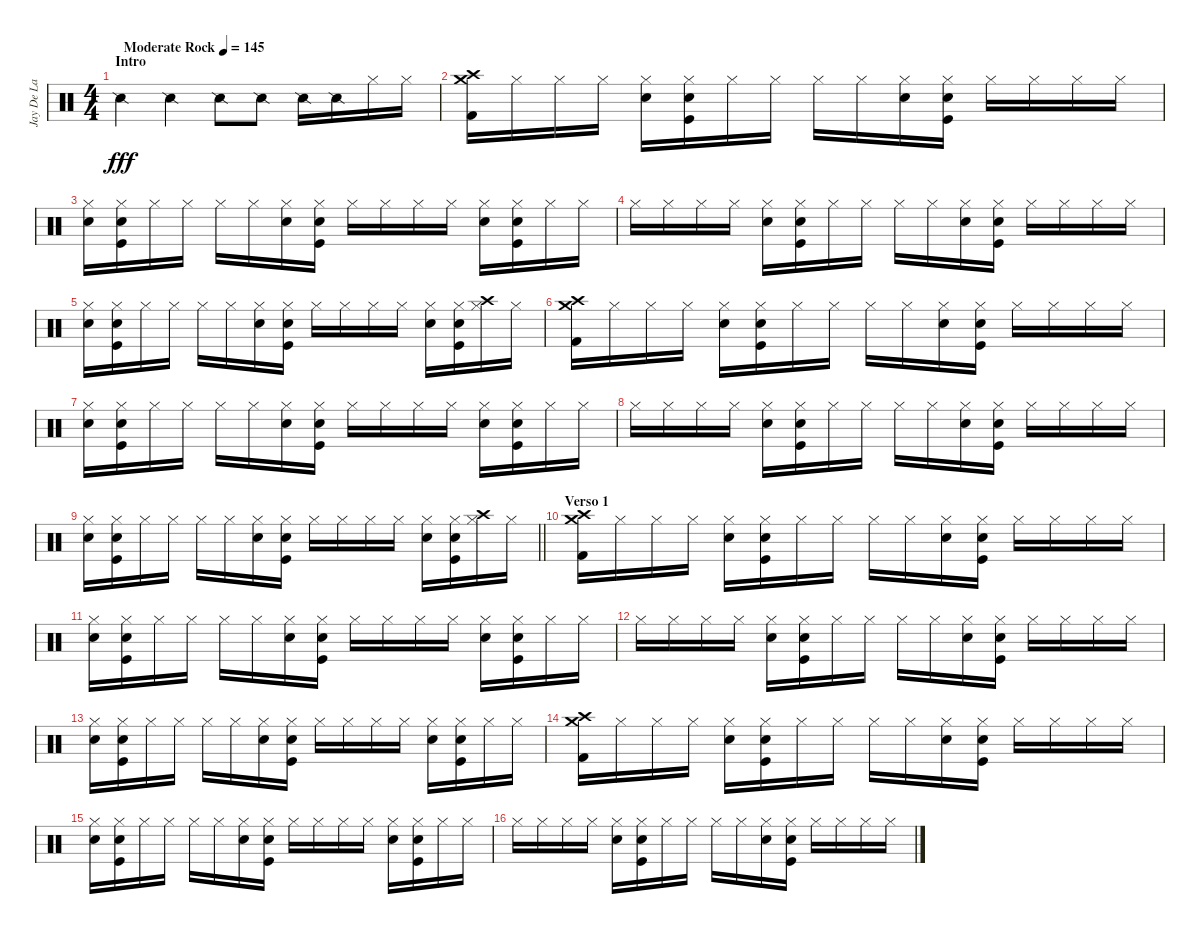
\track ("Jay De La Cueva o C. G." "Jay De La ") {instrument percussion}
\staff {score}
\articulation defaults
\ts (4 4)
\section ("" "Intro")
\tempo (145 "Moderate Rock")
\clef neutral
\ks c "Snare (side stick) 2".4{dy fff} "Snare (side stick) 2".4 "Snare (side stick) 2".8 "Snare (side stick) 2".8 "Snare (side stick) 2".16 "Snare (side stick) 2".16 "Hi-Hat (closed)".16 "Hi-Hat (closed)".16
|
("Crash high (hit)" "Crash medium (hit)" "Kick (hit) 2").16 "Hi-Hat (closed)".16 "Hi-Hat (closed)".16 "Hi-Hat (closed)".16 ("Snare (hit) 2" "Hi-Hat (closed)").16 ("Kick (hit)" "Snare (hit) 2" "Hi-Hat (closed)").16 "Hi-Hat (closed)".16 "Hi-Hat (closed)".16 "Hi-Hat (closed)".16 "Hi-Hat (closed)".16 ("Snare (hit) 2" "Hi-Hat (closed)").16 ("Kick (hit)" "Snare (hit) 2" "Hi-Hat (closed)").16 "Hi-Hat (closed)".16 "Hi-Hat (closed)".16 "Hi-Hat (closed)".16 "Hi-Hat (closed)".16 |
("Snare (hit) 2" "Hi-Hat (closed)").16 ("Kick (hit)" "Snare (hit) 2" "Hi-Hat (closed)").16 "Hi-Hat (closed)".16 "Hi-Hat (closed)".16 "Hi-Hat (closed)".16 "Hi-Hat (closed)".16 ("Snare (hit) 2" "Hi-Hat (closed)").16 ("Kick (hit)" "Snare (hit) 2" "Hi-Hat (closed)").16 "Hi-Hat (closed)".16 "Hi-Hat (closed)".16 "Hi-Hat (closed)".16 "Hi-Hat (closed)".16 ("Snare (hit) 2" "Hi-Hat (closed)").16 ("Kick (hit)" "Snare (hit) 2" "Hi-Hat (closed)").16 "Hi-Hat (closed)".16 "Hi-Hat (closed)".16 |
"Hi-Hat (closed)".16 "Hi-Hat (closed)".16 "Hi-Hat (closed)".16 "Hi-Hat (closed)".16 ("Snare (hit) 2" "Hi-Hat (closed)").16 ("Kick (hit)" "Snare (hit) 2" "Hi-Hat (closed)").16 "Hi-Hat (closed)".16 "Hi-Hat (closed)".16 "Hi-Hat (closed)".16 "Hi-Hat (closed)".16 ("Snare (hit) 2" "Hi-Hat (closed)").16 ("Kick (hit)" "Snare (hit) 2" "Hi-Hat (closed)").16 "Hi-Hat (closed)".16 "Hi-Hat (closed)".16 "Hi-Hat (closed)".16 "Hi-Hat (closed)".16 |
("Snare (hit) 2" "Hi-Hat (closed)").16 ("Kick (hit)" "Snare (hit) 2" "Hi-Hat (closed)").16 "Hi-Hat (closed)".16 "Hi-Hat (closed)".16 "Hi-Hat (closed)".16 "Hi-Hat (closed)".16 ("Snare (hit) 2" "Hi-Hat (closed)").16 ("Kick (hit)" "Snare (hit) 2" "Hi-Hat (closed)").16 "Hi-Hat (closed)".16 "Hi-Hat (closed)".16 "Hi-Hat (closed)".16 "Hi-Hat (closed)".16 ("Snare (hit) 2" "Hi-Hat (closed)").16 ("Kick (hit)" "Snare (hit) 2" "Hi-Hat (closed)").16 ("Crash high (hit)" "Hi-Hat (closed)").16 "Hi-Hat (closed)".16 |
("Crash high (hit)" "Crash medium (hit)" "Kick (hit) 2").16 "Hi-Hat (closed)".16 "Hi-Hat (closed)".16 "Hi-Hat (closed)".16 ("Snare (hit) 2" "Hi-Hat (closed)").16 ("Kick (hit)" "Snare (hit) 2" "Hi-Hat (closed)").16 "Hi-Hat (closed)".16 "Hi-Hat (closed)".16 "Hi-Hat (closed)".16 "Hi-Hat (closed)".16 ("Snare (hit) 2" "Hi-Hat (closed)").16 ("Kick (hit)" "Snare (hit) 2" "Hi-Hat (closed)").16 "Hi-Hat (closed)".16 "Hi-Hat (closed)".16 "Hi-Hat (closed)".16 "Hi-Hat (closed)".16 |
("Snare (hit) 2" "Hi-Hat (closed)").16 ("Kick (hit)" "Snare (hit) 2" "Hi-Hat (closed)").16 "Hi-Hat (closed)".16 "Hi-Hat (closed)".16 "Hi-Hat (closed)".16 "Hi-Hat (closed)".16 ("Snare (hit) 2" "Hi-Hat (closed)").16 ("Kick (hit)" "Snare (hit) 2" "Hi-Hat (closed)").16 "Hi-Hat (closed)".16 "Hi-Hat (closed)".16 "Hi-Hat (closed)".16 "Hi-Hat (closed)".16 ("Snare (hit) 2" "Hi-Hat (closed)").16 ("Kick (hit)" "Snare (hit) 2" "Hi-Hat (closed)").16 "Hi-Hat (closed)".16 "Hi-Hat (closed)".16 |
"Hi-Hat (closed)".16 "Hi-Hat (closed)".16 "Hi-Hat (closed)".16 "Hi-Hat (closed)".16 ("Snare (hit) 2" "Hi-Hat (closed)").16 ("Kick (hit)" "Snare (hit) 2" "Hi-Hat (closed)").16 "Hi-Hat (closed)".16 "Hi-Hat (closed)".16 "Hi-Hat (closed)".16 "Hi-Hat (closed)".16 ("Snare (hit) 2" "Hi-Hat (closed)").16 ("Kick (hit)" "Snare (hit) 2" "Hi-Hat (closed)").16 "Hi-Hat (closed)".16 "Hi-Hat (closed)".16 "Hi-Hat (closed)".16 "Hi-Hat (closed)".16 |
\barLineRight lightlight
("Snare (hit) 2" "Hi-Hat (closed)").16 ("Kick (hit)" "Snare (hit) 2" "Hi-Hat (closed)").16 "Hi-Hat (closed)".16 "Hi-Hat (closed)".16 "Hi-Hat (closed)".16 "Hi-Hat (closed)".16 ("Snare (hit) 2" "Hi-Hat (closed)").16 ("Kick (hit)" "Snare (hit) 2" "Hi-Hat (closed)").16 "Hi-Hat (closed)".16 "Hi-Hat (closed)".16 "Hi-Hat (closed)".16 "Hi-Hat (closed)".16 ("Snare (hit) 2" "Hi-Hat (closed)").16 ("Kick (hit)" "Snare (hit) 2" "Hi-Hat (closed)").16 ("Crash high (hit)" "Hi-Hat (closed)").16 "Hi-Hat (closed)".16 |
\section ("" "Verso 1")
("Crash high (hit)" "Crash medium (hit)" "Kick (hit) 2").16 "Hi-Hat (closed)".16 "Hi-Hat (closed)".16 "Hi-Hat (closed)".16 ("Snare (hit) 2" "Hi-Hat (closed)").16 ("Kick (hit)" "Snare (hit) 2" "Hi-Hat (closed)").16 "Hi-Hat (closed)".16 "Hi-Hat (closed)".16 "Hi-Hat (closed)".16 "Hi-Hat (closed)".16 ("Snare (hit) 2" "Hi-Hat (closed)").16 ("Kick (hit)" "Snare (hit) 2" "Hi-Hat (closed)").16 "Hi-Hat (closed)".16 "Hi-Hat (closed)".16 "Hi-Hat (closed)".16 "Hi-Hat (closed)".16 |
("Snare (hit) 2" "Hi-Hat (closed)").16 ("Kick (hit)" "Snare (hit) 2" "Hi-Hat (closed)").16 "Hi-Hat (closed)".16 "Hi-Hat (closed)".16 "Hi-Hat (closed)".16 "Hi-Hat (closed)".16 ("Snare (hit) 2" "Hi-Hat (closed)").16 ("Kick (hit)" "Snare (hit) 2" "Hi-Hat (closed)").16 "Hi-Hat (closed)".16 "Hi-Hat (closed)".16 "Hi-Hat (closed)".16 "Hi-Hat (closed)".16 ("Snare (hit) 2" "Hi-Hat (closed)").16 ("Kick (hit)" "Snare (hit) 2" "Hi-Hat (closed)").16 "Hi-Hat (closed)".16 "Hi-Hat (closed)".16 |
"Hi-Hat (closed)".16 "Hi-Hat (closed)".16 "Hi-Hat (closed)".16 "Hi-Hat (closed)".16 ("Snare (hit) 2" "Hi-Hat (closed)").16 ("Kick (hit)" "Snare (hit) 2" "Hi-Hat (closed)").16 "Hi-Hat (closed)".16 "Hi-Hat (closed)".16 "Hi-Hat (closed)".16 "Hi-Hat (closed)".16 ("Snare (hit) 2" "Hi-Hat (closed)").16 ("Kick (hit)" "Snare (hit) 2" "Hi-Hat (closed)").16 "Hi-Hat (closed)".16 "Hi-Hat (closed)".16 "Hi-Hat (closed)".16 "Hi-Hat (closed)".16 |
("Snare (hit) 2" "Hi-Hat (closed)").16 ("Kick (hit)" "Snare (hit) 2" "Hi-Hat (closed)").16 "Hi-Hat (closed)".16 "Hi-Hat (closed)".16 "Hi-Hat (closed)".16 "Hi-Hat (closed)".16 ("Snare (hit) 2" "Hi-Hat (closed)").16 ("Kick (hit)" "Snare (hit) 2" "Hi-Hat (closed)").16 "Hi-Hat (closed)".16 "Hi-Hat (closed)".16 "Hi-Hat (closed)".16 "Hi-Hat (closed)".16 ("Snare (hit) 2" "Hi-Hat (closed)").16 ("Kick (hit)" "Snare (hit) 2" "Hi-Hat (closed)").16 "Hi-Hat (closed)".16 "Hi-Hat (closed)".16 |
("Crash high (hit)" "Crash medium (hit)" "Kick (hit) 2").16 "Hi-Hat (closed)".16 "Hi-Hat (closed)".16 "Hi-Hat (closed)".16 ("Snare (hit) 2" "Hi-Hat (closed)").16 ("Kick (hit)" "Snare (hit) 2" "Hi-Hat (closed)").16 "Hi-Hat (closed)".16 "Hi-Hat (closed)".16 "Hi-Hat (closed)".16 "Hi-Hat (closed)".16 ("Snare (hit) 2" "Hi-Hat (closed)").16 ("Kick (hit)" "Snare (hit) 2" "Hi-Hat (closed)").16 "Hi-Hat (closed)".16 "Hi-Hat (closed)".16 "Hi-Hat (closed)".16 "Hi-Hat (closed)".16 |
("Snare (hit) 2" "Hi-Hat (closed)").16 ("Kick (hit)" "Snare (hit) 2" "Hi-Hat (closed)").16 "Hi-Hat (closed)".16 "Hi-Hat (closed)".16 "Hi-Hat (closed)".16 "Hi-Hat (closed)".16 ("Snare (hit) 2" "Hi-Hat (closed)").16 ("Kick (hit)" "Snare (hit) 2" "Hi-Hat (closed)").16 "Hi-Hat (closed)".16 "Hi-Hat (closed)".16 "Hi-Hat (closed)".16 "Hi-Hat (closed)".16 ("Snare (hit) 2" "Hi-Hat (closed)").16 ("Kick (hit)" "Snare (hit) 2" "Hi-Hat (closed)").16 "Hi-Hat (closed)".16 "Hi-Hat (closed)".16 |
"Hi-Hat (closed)".16 "Hi-Hat (closed)".16 "Hi-Hat (closed)".16 "Hi-Hat (closed)".16 ("Snare (hit) 2" "Hi-Hat (closed)").16 ("Kick (hit)" "Snare (hit) 2" "Hi-Hat (closed)").16 "Hi-Hat (closed)".16 "Hi-Hat (closed)".16 "Hi-Hat (closed)".16 "Hi-Hat (closed)".16 ("Snare (hit) 2" "Hi-Hat (closed)").16 ("Kick (hit)" "Snare (hit) 2" "Hi-Hat (closed)").16 "Hi-Hat (closed)".16 "Hi-Hat (closed)".16 "Hi-Hat (closed)".16 "Hi-Hat (closed)".16
